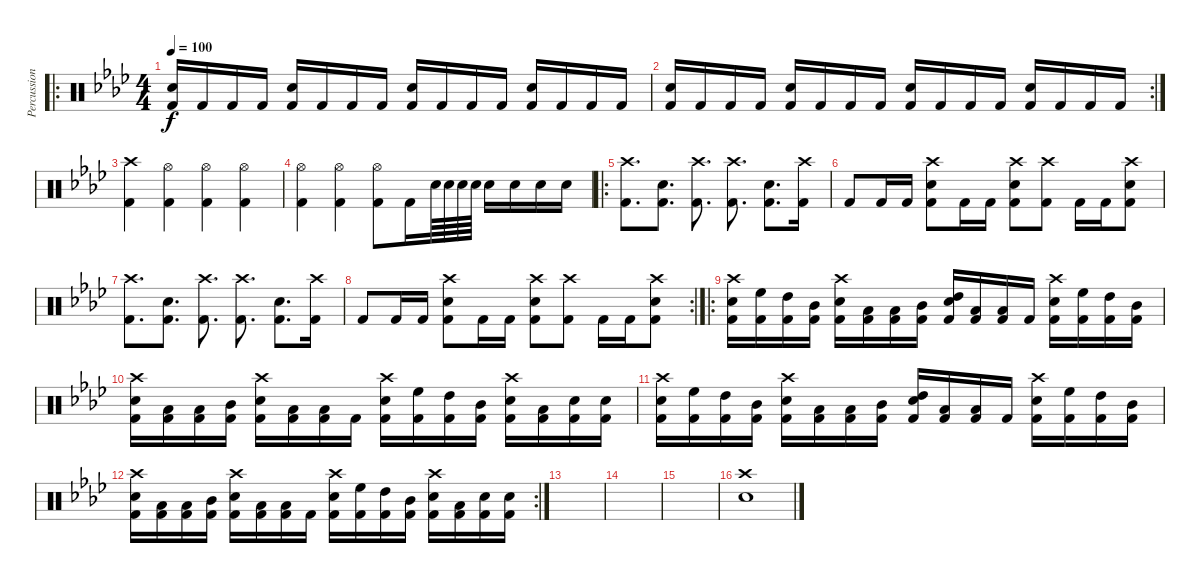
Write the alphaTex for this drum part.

\track ("Percussion" "Percussion") {instrument percussion}
\staff {score}
\articulation defaults
\ro
\ts (4 4)
\tempo 100
\clef neutral
\ks ab
("Electric Snare (hit)" "Kick (hit) 2").16{dy f} "Kick (hit) 2".16 "Kick (hit) 2".16 "Kick (hit) 2".16 ("Electric Snare (hit)" "Kick (hit) 2").16 "Kick (hit) 2".16 "Kick (hit) 2".16 "Kick (hit) 2".16 ("Electric Snare (hit)" "Kick (hit) 2").16 "Kick (hit) 2".16 "Kick (hit) 2".16 "Kick (hit) 2".16 ("Electric Snare (hit)" "Kick (hit) 2").16 "Kick (hit) 2".16 "Kick (hit) 2".16 "Kick (hit) 2".16 |
\rc 2
("Electric Snare (hit)" "Kick (hit) 2").16 "Kick (hit) 2".16 "Kick (hit) 2".16 "Kick (hit) 2".16 ("Electric Snare (hit)" "Kick (hit) 2").16 "Kick (hit) 2".16 "Kick (hit) 2".16 "Kick (hit) 2".16 ("Electric Snare (hit)" "Kick (hit) 2").16 "Kick (hit) 2".16 "Kick (hit) 2".16 "Kick (hit) 2".16 ("Electric Snare (hit)" "Kick (hit) 2").16 "Kick (hit) 2".16 "Kick (hit) 2".16 "Kick (hit) 2".16 |
("Crash high (hit)" "Kick (hit) 2").4 ("Hi-Hat (open)" "Kick (hit) 2").4 ("Hi-Hat (open)" "Kick (hit) 2").4 ("Hi-Hat (open)" "Kick (hit) 2").4 |
("Hi-Hat (open)" "Kick (hit) 2").4 ("Hi-Hat (open)" "Kick (hit) 2").4 ("Hi-Hat (open)" "Kick (hit) 2").8 "Kick (hit) 2".16 "Electric Snare (hit)".64 "Electric Snare (hit)".64 "Electric Snare (hit)".64 "Electric Snare (hit)".64 "Electric Snare (hit)".16 "Electric Snare (hit)".16 "Electric Snare (hit)".16 "Electric Snare (hit)".16 |
\ro
("Crash high (hit)" "Kick (hit) 2").8{d} ("Electric Snare (hit)" "Kick (hit) 2").8{d} ("Crash high (hit)" "Kick (hit) 2").8{d} ("Crash high (hit)" "Kick (hit) 2").8{d} ("Electric Snare (hit)" "Kick (hit) 2").8{d} ("Crash high (hit)" "Kick (hit) 2").16 |
"Kick (hit) 2".8 "Kick (hit) 2".16 "Kick (hit) 2".16 ("Crash high (hit)" "Electric Snare (hit)" "Kick (hit) 2").8 "Kick (hit) 2".16 "Kick (hit) 2".16 ("Crash high (hit)" "Electric Snare (hit)" "Kick (hit) 2").8 ("Crash high (hit)" "Kick (hit) 2").8 "Kick (hit) 2".16 "Kick (hit) 2".16 ("Crash high (hit)" "Electric Snare (hit)" "Kick (hit) 2").8 |
("Crash high (hit)" "Kick (hit) 2").8{d} ("Electric Snare (hit)" "Kick (hit) 2").8{d} ("Crash high (hit)" "Kick (hit) 2").8{d} ("Crash high (hit)" "Kick (hit) 2").8{d} ("Electric Snare (hit)" "Kick (hit) 2").8{d} ("Crash high (hit)" "Kick (hit) 2").16 |
\rc 2 "Kick (hit) 2".8 "Kick (hit) 2".16 "Kick (hit) 2".16
("Crash high (hit)" "Electric Snare (hit)" "Kick (hit) 2").8 "Kick (hit) 2".16 "Kick (hit) 2".16 ("Crash high (hit)" "Electric Snare (hit)" "Kick (hit) 2").8 ("Crash high (hit)" "Kick (hit) 2").8 "Kick (hit) 2".16 "Kick (hit) 2".16 ("Crash high (hit)" "Electric Snare (hit)" "Kick (hit) 2").8 |
\ro
("Crash high (hit)" "Electric Snare (hit)" "Kick (hit) 2").16 ("High Floor Tom (hit)" "Kick (hit) 2").16 ("High Tom (hit)" "Kick (hit) 2").16 ("Mid Tom (hit)" "Kick (hit) 2").16 ("Crash high (hit)" "Electric Snare (hit)" "Kick (hit) 2").16 ("Low Tom (hit)" "Kick (hit) 2").16 ("Low Tom (hit)" "Kick (hit) 2").16 ("Mid Tom (hit)" "Kick (hit) 2").16 ("High Tom (hit)" "Electric Snare (hit)" "Kick (hit) 2").16 ("Low Tom (hit)" "Kick (hit) 2").16 ("Low Tom (hit)" "Kick (hit) 2").16 "Kick (hit) 2".16 ("Crash high (hit)" "Electric Snare (hit)" "Kick (hit) 2").16 ("High Floor Tom (hit)" "Kick (hit) 2").16 ("High Tom (hit)" "Kick (hit) 2").16 ("Mid Tom (hit)" "Kick (hit) 2").16 |
("Crash high (hit)" "Electric Snare (hit)" "Kick (hit) 2").16 ("Low Tom (hit)" "Kick (hit) 2").16 ("Low Tom (hit)" "Kick (hit) 2").16 ("Mid Tom (hit)" "Kick (hit) 2").16 ("Crash high (hit)" "Electric Snare (hit)" "Kick (hit) 2").16 ("Low Tom (hit)" "Kick (hit) 2").16 ("Low Tom (hit)" "Kick (hit) 2").16 "Kick (hit) 2".16 ("Crash high (hit)" "Electric Snare (hit)" "Kick (hit) 2").16 ("High Floor Tom (hit)" "Kick (hit) 2").16 ("High Tom (hit)" "Kick (hit) 2").16 ("Mid Tom (hit)" "Kick (hit) 2").16 ("Crash high (hit)" "Electric Snare (hit)" "Kick (hit) 2").16 ("Low Tom (hit)" "Kick (hit) 2").16 ("Electric Snare (hit)" "Kick (hit) 2").16 ("Electric Snare (hit)" "Kick (hit) 2").16 |
("Crash high (hit)" "Electric Snare (hit)" "Kick (hit) 2").16 ("High Floor Tom (hit)" "Kick (hit) 2").16 ("High Tom (hit)" "Kick (hit) 2").16 ("Mid Tom (hit)" "Kick (hit) 2").16 ("Crash high (hit)" "Electric Snare (hit)" "Kick (hit) 2").16 ("Low Tom (hit)" "Kick (hit) 2").16 ("Low Tom (hit)" "Kick (hit) 2").16 ("Mid Tom (hit)" "Kick (hit) 2").16 ("High Tom (hit)" "Electric Snare (hit)" "Kick (hit) 2").16 ("Low Tom (hit)" "Kick (hit) 2").16 ("Low Tom (hit)" "Kick (hit) 2").16 "Kick (hit) 2".16 ("Crash high (hit)" "Electric Snare (hit)" "Kick (hit) 2").16 ("High Floor Tom (hit)" "Kick (hit) 2").16 ("High Tom (hit)" "Kick (hit) 2").16 ("Mid Tom (hit)" "Kick (hit) 2").16 |
\rc 2
("Crash high (hit)" "Electric Snare (hit)" "Kick (hit) 2").16 ("Low Tom (hit)" "Kick (hit) 2").16 ("Low Tom (hit)" "Kick (hit) 2").16 ("Mid Tom (hit)" "Kick (hit) 2").16 ("Crash high (hit)" "Electric Snare (hit)" "Kick (hit) 2").16 ("Low Tom (hit)" "Kick (hit) 2").16 ("Low Tom (hit)" "Kick (hit) 2").16 "Kick (hit) 2".16 ("Crash high (hit)" "Electric Snare (hit)" "Kick (hit) 2").16 ("High Floor Tom (hit)" "Kick (hit) 2").16 ("High Tom (hit)" "Kick (hit) 2").16 ("Mid Tom (hit)" "Kick (hit) 2").16 ("Crash high (hit)" "Electric Snare (hit)" "Kick (hit) 2").16 ("Low Tom (hit)" "Kick (hit) 2").16 ("Electric Snare (hit)" "Kick (hit) 2").16 ("Electric Snare (hit)" "Kick (hit) 2").16 |
|
|
|
("Crash high (hit)" "Electric Snare (hit)").1
